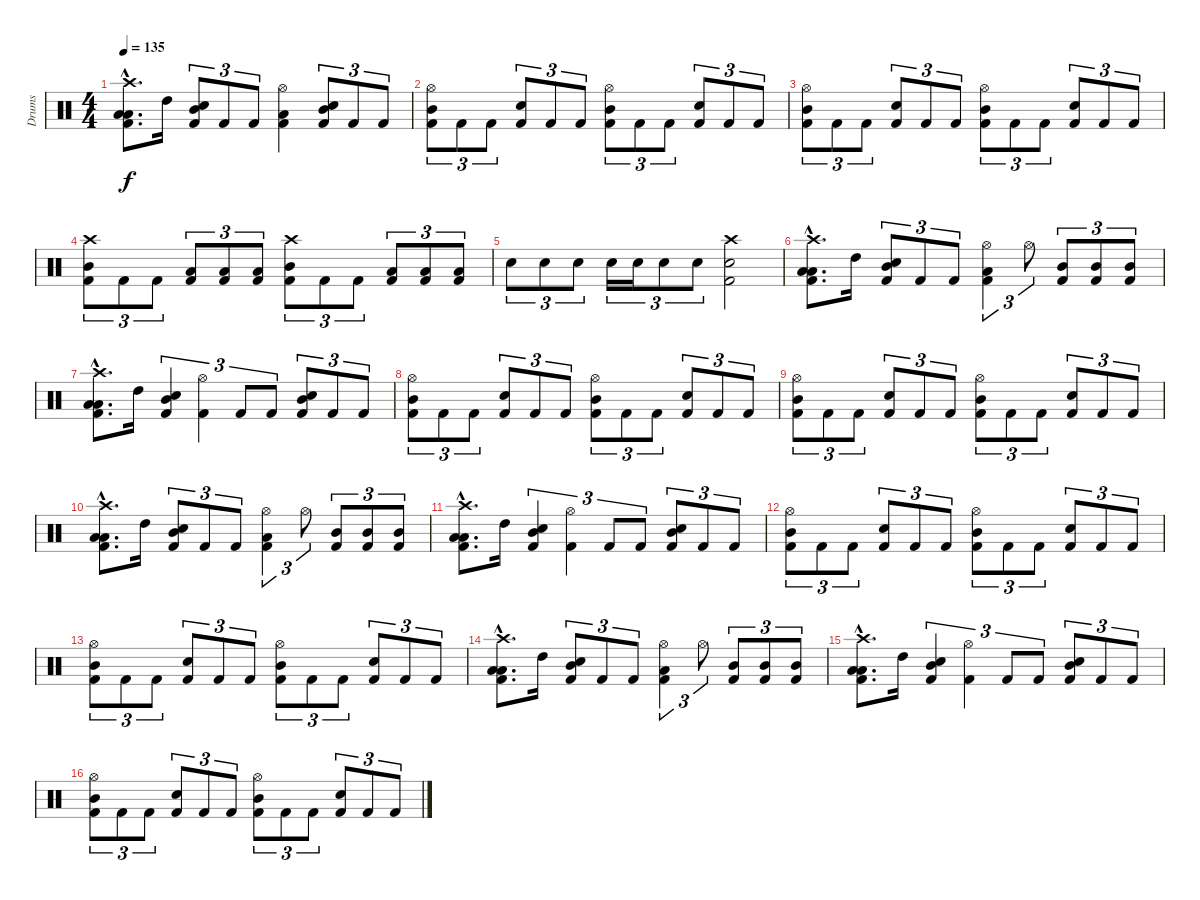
\track ("Drums" "Drums") {instrument percussion}
\staff {score}
\articulation defaults
\ts (4 4)
\tempo 135
\clef neutral
\ks c
("Crash high (hit)"{hac} "Low Tom (hit)"{hac} "Low Tom (hit)"{hac} "Kick (hit) 2"{hac}).8{d dy f} "High Tom (hit)".16 ("Mid Tom (hit)" "Snare (hit) 2" "Kick (hit) 2").8{tu (3 2)} "Kick (hit) 2".8{tu (3 2)} "Kick (hit) 2".8{tu (3 2)} ("Hi-Hat (open)" "Low Tom (hit)" "Kick (hit) 2").4 ("Mid Tom (hit)" "Snare (hit) 2" "Kick (hit) 2").8{tu (3 2)} "Kick (hit) 2".8{tu (3 2)} "Kick (hit) 2".8{tu (3 2)} |
("Hi-Hat (open)" "Mid Tom (hit)" "Kick (hit) 2").8{tu (3 2)} "Kick (hit) 2".8{tu (3 2)} "Kick (hit) 2".8{tu (3 2)} ("Snare (hit) 2" "Kick (hit) 2").8{tu (3 2)} "Kick (hit) 2".8{tu (3 2)} "Kick (hit) 2".8{tu (3 2)} ("Hi-Hat (open)" "Mid Tom (hit)" "Kick (hit) 2").8{tu (3 2)} "Kick (hit) 2".8{tu (3 2)} "Kick (hit) 2".8{tu (3 2)} ("Snare (hit) 2" "Kick (hit) 2").8{tu (3 2)} "Kick (hit) 2".8{tu (3 2)} "Kick (hit) 2".8{tu (3 2)} |
("Hi-Hat (open)" "Mid Tom (hit)" "Kick (hit) 2").8{tu (3 2)} "Kick (hit) 2".8{tu (3 2)} "Kick (hit) 2".8{tu (3 2)} ("Snare (hit) 2" "Kick (hit) 2").8{tu (3 2)} "Kick (hit) 2".8{tu (3 2)} "Kick (hit) 2".8{tu (3 2)} ("Hi-Hat (open)" "Mid Tom (hit)" "Kick (hit) 2").8{tu (3 2)} "Kick (hit) 2".8{tu (3 2)} "Kick (hit) 2".8{tu (3 2)} ("Snare (hit) 2" "Kick (hit) 2").8{tu (3 2)} "Kick (hit) 2".8{tu (3 2)} "Kick (hit) 2".8{tu (3 2)} |
("Crash high (hit)" "Mid Tom (hit)" "Kick (hit) 2").8{tu (3 2)} "Kick (hit) 2".8{tu (3 2)} "Kick (hit) 2".8{tu (3 2)} ("Low Tom (hit)" "Kick (hit) 2").8{tu (3 2)} ("Low Tom (hit)" "Kick (hit) 2").8{tu (3 2)} ("Low Tom (hit)" "Kick (hit) 2").8{tu (3 2)} ("Crash high (hit)" "Mid Tom (hit)" "Kick (hit) 2").8{tu (3 2)} "Kick (hit) 2".8{tu (3 2)} "Kick (hit) 2".8{tu (3 2)} ("Low Tom (hit)" "Kick (hit) 2").8{tu (3 2)} ("Low Tom (hit)" "Kick (hit) 2").8{tu (3 2)} ("Low Tom (hit)" "Kick (hit) 2").8{tu (3 2)} |
"Snare (hit) 2".8{tu (3 2)} "Snare (hit) 2".8{tu (3 2)} "Snare (hit) 2".8{tu (3 2)} "Snare (hit) 2".16{tu (3 2)} "Snare (hit) 2".16{tu (3 2)} "Snare (hit) 2".8{tu (3 2)} "Snare (hit) 2".8{tu (3 2)} ("Crash high (hit)" "Snare (hit) 2" "Kick (hit) 2").2 |
("Crash high (hit)"{hac} "Low Tom (hit)"{hac} "Low Tom (hit)"{hac} "Kick (hit) 2"{hac}).8{d} "High Tom (hit)".16 ("Mid Tom (hit)" "Snare (hit) 2" "Kick (hit) 2").8{tu (3 2)} "Kick (hit) 2".8{tu (3 2)} "Kick (hit) 2".8{tu (3 2)} ("Hi-Hat (open)" "Low Tom (hit)" "Kick (hit) 2").4{tu (3 2)} "Hi-Hat (open)".8{tu (3 2)} ("Mid Tom (hit)" "Kick (hit) 2").8{tu (3 2)} ("Mid Tom (hit)" "Kick (hit) 2").8{tu (3 2)} ("Mid Tom (hit)" "Kick (hit) 2").8{tu (3 2)} |
("Crash high (hit)"{hac} "Low Tom (hit)"{hac} "Low Tom (hit)"{hac} "Kick (hit) 2"{hac}).8{d} "High Tom (hit)".16 ("Mid Tom (hit)" "Snare (hit) 2" "Kick (hit) 2").4{tu (3 2)} ("Hi-Hat (open)" "Kick (hit) 2").4{tu (3 2)} "Kick (hit) 2".8{tu (3 2)} "Kick (hit) 2".8{tu (3 2)} ("Mid Tom (hit)" "Snare (hit) 2" "Kick (hit) 2").8{tu (3 2)} "Kick (hit) 2".8{tu (3 2)} "Kick (hit) 2".8{tu (3 2)} |
("Hi-Hat (open)" "Mid Tom (hit)" "Kick (hit) 2").8{tu (3 2)} "Kick (hit) 2".8{tu (3 2)} "Kick (hit) 2".8{tu (3 2)} ("Snare (hit) 2" "Kick (hit) 2").8{tu (3 2)} "Kick (hit) 2".8{tu (3 2)} "Kick (hit) 2".8{tu (3 2)} ("Hi-Hat (open)" "Mid Tom (hit)" "Kick (hit) 2").8{tu (3 2)} "Kick (hit) 2".8{tu (3 2)} "Kick (hit) 2".8{tu (3 2)} ("Snare (hit) 2" "Kick (hit) 2").8{tu (3 2)} "Kick (hit) 2".8{tu (3 2)} "Kick (hit) 2".8{tu (3 2)} |
("Hi-Hat (open)" "Mid Tom (hit)" "Kick (hit) 2").8{tu (3 2)} "Kick (hit) 2".8{tu (3 2)} "Kick (hit) 2".8{tu (3 2)} ("Snare (hit) 2" "Kick (hit) 2").8{tu (3 2)} "Kick (hit) 2".8{tu (3 2)} "Kick (hit) 2".8{tu (3 2)} ("Hi-Hat (open)" "Mid Tom (hit)" "Kick (hit) 2").8{tu (3 2)} "Kick (hit) 2".8{tu (3 2)} "Kick (hit) 2".8{tu (3 2)} ("Snare (hit) 2" "Kick (hit) 2").8{tu (3 2)} "Kick (hit) 2".8{tu (3 2)} "Kick (hit) 2".8{tu (3 2)} |
("Crash high (hit)"{hac} "Low Tom (hit)"{hac} "Low Tom (hit)"{hac} "Kick (hit) 2"{hac}).8{d} "High Tom (hit)".16 ("Mid Tom (hit)" "Snare (hit) 2" "Kick (hit) 2").8{tu (3 2)} "Kick (hit) 2".8{tu (3 2)} "Kick (hit) 2".8{tu (3 2)} ("Hi-Hat (open)" "Low Tom (hit)" "Kick (hit) 2").4{tu (3 2)} "Hi-Hat (open)".8{tu (3 2)} ("Mid Tom (hit)" "Kick (hit) 2").8{tu (3 2)} ("Mid Tom (hit)" "Kick (hit) 2").8{tu (3 2)} ("Mid Tom (hit)" "Kick (hit) 2").8{tu (3 2)} |
("Crash high (hit)"{hac} "Low Tom (hit)"{hac} "Low Tom (hit)"{hac} "Kick (hit) 2"{hac}).8{d} "High Tom (hit)".16 ("Mid Tom (hit)" "Snare (hit) 2" "Kick (hit) 2").4{tu (3 2)} ("Hi-Hat (open)" "Kick (hit) 2").4{tu (3 2)} "Kick (hit) 2".8{tu (3 2)} "Kick (hit) 2".8{tu (3 2)} ("Mid Tom (hit)" "Snare (hit) 2" "Kick (hit) 2").8{tu (3 2)} "Kick (hit) 2".8{tu (3 2)} "Kick (hit) 2".8{tu (3 2)} |
("Hi-Hat (open)" "Mid Tom (hit)" "Kick (hit) 2").8{tu (3 2)} "Kick (hit) 2".8{tu (3 2)} "Kick (hit) 2".8{tu (3 2)} ("Snare (hit) 2" "Kick (hit) 2").8{tu (3 2)} "Kick (hit) 2".8{tu (3 2)} "Kick (hit) 2".8{tu (3 2)} ("Hi-Hat (open)" "Mid Tom (hit)" "Kick (hit) 2").8{tu (3 2)} "Kick (hit) 2".8{tu (3 2)} "Kick (hit) 2".8{tu (3 2)} ("Snare (hit) 2" "Kick (hit) 2").8{tu (3 2)} "Kick (hit) 2".8{tu (3 2)} "Kick (hit) 2".8{tu (3 2)} |
("Hi-Hat (open)" "Mid Tom (hit)" "Kick (hit) 2").8{tu (3 2)} "Kick (hit) 2".8{tu (3 2)} "Kick (hit) 2".8{tu (3 2)} ("Snare (hit) 2" "Kick (hit) 2").8{tu (3 2)} "Kick (hit) 2".8{tu (3 2)} "Kick (hit) 2".8{tu (3 2)} ("Hi-Hat (open)" "Mid Tom (hit)" "Kick (hit) 2").8{tu (3 2)} "Kick (hit) 2".8{tu (3 2)} "Kick (hit) 2".8{tu (3 2)} ("Snare (hit) 2" "Kick (hit) 2").8{tu (3 2)} "Kick (hit) 2".8{tu (3 2)} "Kick (hit) 2".8{tu (3 2)} |
("Crash high (hit)"{hac} "Low Tom (hit)"{hac} "Low Tom (hit)"{hac} "Kick (hit) 2"{hac}).8{d} "High Tom (hit)".16 ("Mid Tom (hit)" "Snare (hit) 2" "Kick (hit) 2").8{tu (3 2)} "Kick (hit) 2".8{tu (3 2)} "Kick (hit) 2".8{tu (3 2)} ("Hi-Hat (open)" "Low Tom (hit)" "Kick (hit) 2").4{tu (3 2)} "Hi-Hat (open)".8{tu (3 2)} ("Mid Tom (hit)" "Kick (hit) 2").8{tu (3 2)} ("Mid Tom (hit)" "Kick (hit) 2").8{tu (3 2)} ("Mid Tom (hit)" "Kick (hit) 2").8{tu (3 2)} |
("Crash high (hit)"{hac} "Low Tom (hit)"{hac} "Low Tom (hit)"{hac} "Kick (hit) 2"{hac}).8{d} "High Tom (hit)".16 ("Mid Tom (hit)" "Snare (hit) 2" "Kick (hit) 2").4{tu (3 2)} ("Hi-Hat (open)" "Kick (hit) 2").4{tu (3 2)} "Kick (hit) 2".8{tu (3 2)} "Kick (hit) 2".8{tu (3 2)} ("Mid Tom (hit)" "Snare (hit) 2" "Kick (hit) 2").8{tu (3 2)} "Kick (hit) 2".8{tu (3 2)} "Kick (hit) 2".8{tu (3 2)} |
("Hi-Hat (open)" "Mid Tom (hit)" "Kick (hit) 2").8{tu (3 2)} "Kick (hit) 2".8{tu (3 2)} "Kick (hit) 2".8{tu (3 2)} ("Snare (hit) 2" "Kick (hit) 2").8{tu (3 2)} "Kick (hit) 2".8{tu (3 2)} "Kick (hit) 2".8{tu (3 2)} ("Hi-Hat (open)" "Mid Tom (hit)" "Kick (hit) 2").8{tu (3 2)} "Kick (hit) 2".8{tu (3 2)} "Kick (hit) 2".8{tu (3 2)} ("Snare (hit) 2" "Kick (hit) 2").8{tu (3 2)} "Kick (hit) 2".8{tu (3 2)} "Kick (hit) 2".8{tu (3 2)}
